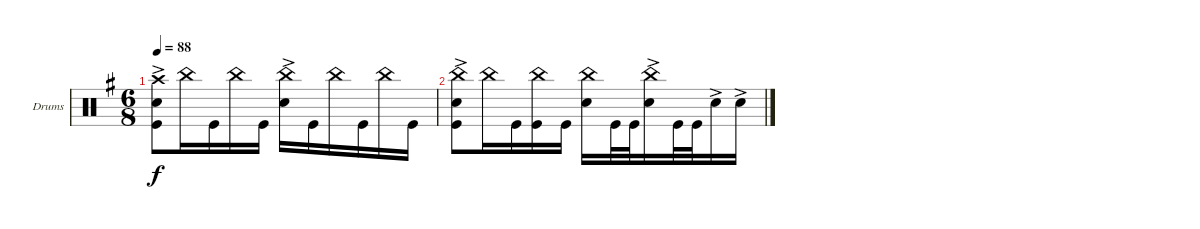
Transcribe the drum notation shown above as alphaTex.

\bracketExtendMode groupsimilarinstruments
\firstSystemTrackNameOrientation horizontal
\otherSystemsTrackNameOrientation horizontal
\track ("Drumkit" "Drums") {instrument percussion}
\staff {score}
\articulation defaults
\ts (6 8)
\tempo 88
\clef neutral
\ks eminor
("Crash high (hit)" "Kick (hit)" "Snare (hit) 2"{ac}).8{dy f} "China (hit)".16 "Kick (hit)".16 "China (hit)".16 "Kick (hit)".16 ("Snare (hit) 2"{ac} "China (hit)").16 "Kick (hit)".16 "China (hit)".16 "Kick (hit)".16 "China (hit)".16 "Kick (hit)".16 |
("Kick (hit)" "Snare (hit) 2"{ac} "China (hit)").8 "China (hit)".16 "Kick (hit)".16 ("Kick (hit)" "China (hit)").16 "Kick (hit)".16 ("Snare (hit) 2" "China (hit)").16 "Kick (hit)".32 "Kick (hit)".32 ("Snare (hit) 2"{ac} "China (hit)").16 "Kick (hit)".32 "Kick (hit)".32 "Snare (hit) 2"{ac}.16 "Snare (hit) 2"{ac}.16
